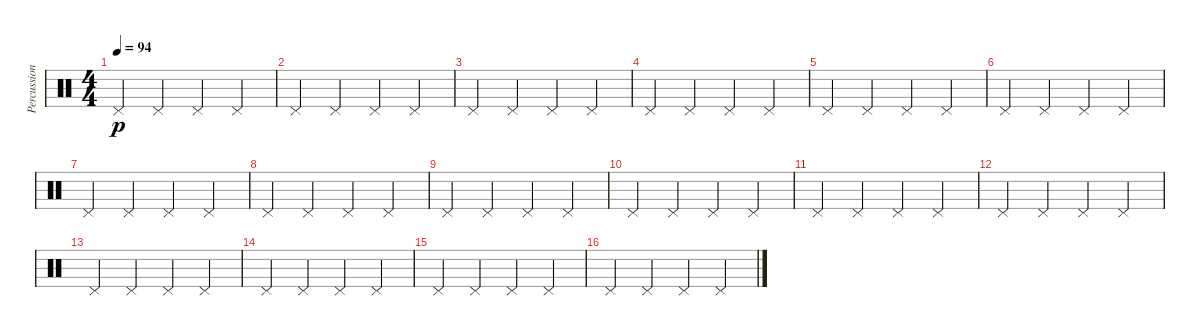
\track ("Percussions" "Percussion") {instrument percussion}
\staff {score}
\articulation defaults
\ts (4 4)
\tempo 94
\clef neutral
\ks c "Pedal Hi-Hat (hit)".4{dy p} "Pedal Hi-Hat (hit)".4 "Pedal Hi-Hat (hit)".4 "Pedal Hi-Hat (hit)".4
|
"Pedal Hi-Hat (hit)".4 "Pedal Hi-Hat (hit)".4 "Pedal Hi-Hat (hit)".4 "Pedal Hi-Hat (hit)".4 |
"Pedal Hi-Hat (hit)".4 "Pedal Hi-Hat (hit)".4 "Pedal Hi-Hat (hit)".4 "Pedal Hi-Hat (hit)".4 |
"Pedal Hi-Hat (hit)".4 "Pedal Hi-Hat (hit)".4 "Pedal Hi-Hat (hit)".4 "Pedal Hi-Hat (hit)".4 |
"Pedal Hi-Hat (hit)".4 "Pedal Hi-Hat (hit)".4 "Pedal Hi-Hat (hit)".4 "Pedal Hi-Hat (hit)".4 |
"Pedal Hi-Hat (hit)".4 "Pedal Hi-Hat (hit)".4 "Pedal Hi-Hat (hit)".4 "Pedal Hi-Hat (hit)".4 |
"Pedal Hi-Hat (hit)".4 "Pedal Hi-Hat (hit)".4 "Pedal Hi-Hat (hit)".4 "Pedal Hi-Hat (hit)".4 |
"Pedal Hi-Hat (hit)".4 "Pedal Hi-Hat (hit)".4 "Pedal Hi-Hat (hit)".4 "Pedal Hi-Hat (hit)".4 |
"Pedal Hi-Hat (hit)".4 "Pedal Hi-Hat (hit)".4 "Pedal Hi-Hat (hit)".4 "Pedal Hi-Hat (hit)".4 |
"Pedal Hi-Hat (hit)".4 "Pedal Hi-Hat (hit)".4 "Pedal Hi-Hat (hit)".4 "Pedal Hi-Hat (hit)".4 |
"Pedal Hi-Hat (hit)".4 "Pedal Hi-Hat (hit)".4 "Pedal Hi-Hat (hit)".4 "Pedal Hi-Hat (hit)".4 |
"Pedal Hi-Hat (hit)".4 "Pedal Hi-Hat (hit)".4 "Pedal Hi-Hat (hit)".4 "Pedal Hi-Hat (hit)".4 |
"Pedal Hi-Hat (hit)".4 "Pedal Hi-Hat (hit)".4 "Pedal Hi-Hat (hit)".4 "Pedal Hi-Hat (hit)".4 |
"Pedal Hi-Hat (hit)".4 "Pedal Hi-Hat (hit)".4 "Pedal Hi-Hat (hit)".4 "Pedal Hi-Hat (hit)".4 |
"Pedal Hi-Hat (hit)".4 "Pedal Hi-Hat (hit)".4 "Pedal Hi-Hat (hit)".4 "Pedal Hi-Hat (hit)".4 |
"Pedal Hi-Hat (hit)".4 "Pedal Hi-Hat (hit)".4 "Pedal Hi-Hat (hit)".4 "Pedal Hi-Hat (hit)".4
